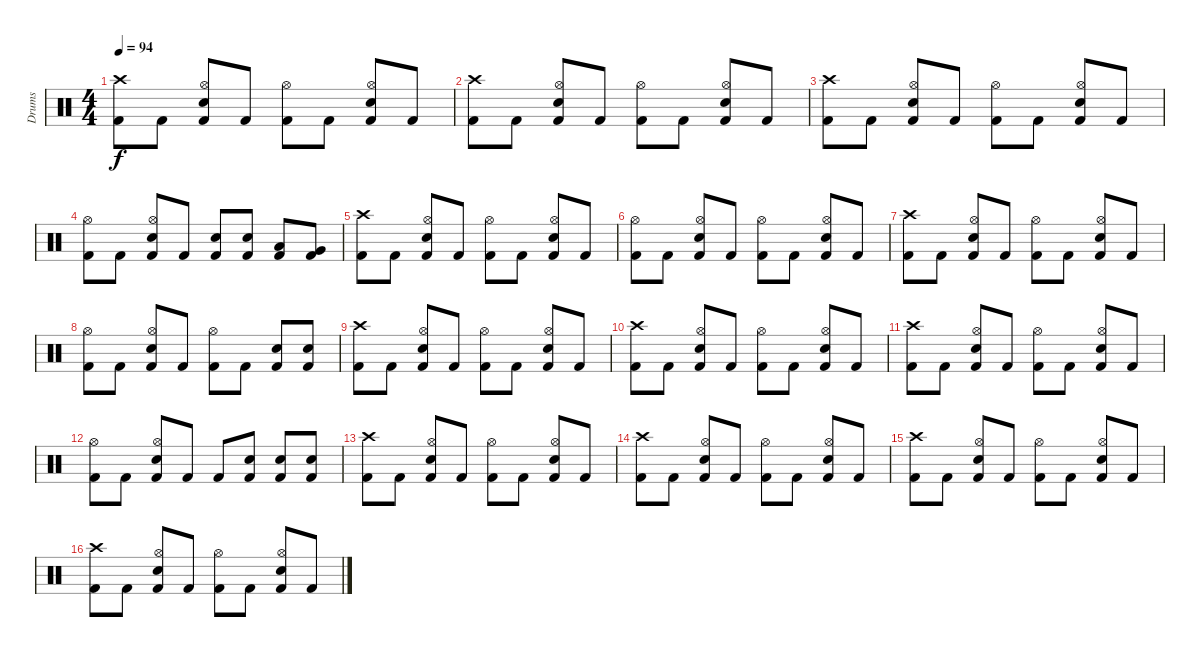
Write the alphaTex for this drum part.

\track ("Drums" "Drums") {instrument percussion}
\staff {score}
\articulation defaults
\ts (4 4)
\tempo 94
\clef neutral
\ks c
("Crash high (hit)" "Kick (hit) 2").8{dy f} "Kick (hit) 2".8 ("Hi-Hat (open)" "Snare (hit) 2" "Kick (hit) 2").8 "Kick (hit) 2".8 ("Hi-Hat (open)" "Kick (hit) 2").8 "Kick (hit) 2".8 ("Hi-Hat (open)" "Snare (hit) 2" "Kick (hit) 2").8 "Kick (hit) 2".8 |
("Crash high (hit)" "Kick (hit) 2").8 "Kick (hit) 2".8 ("Hi-Hat (open)" "Snare (hit) 2" "Kick (hit) 2").8 "Kick (hit) 2".8 ("Hi-Hat (open)" "Kick (hit) 2").8 "Kick (hit) 2".8 ("Hi-Hat (open)" "Snare (hit) 2" "Kick (hit) 2").8 "Kick (hit) 2".8 |
("Crash high (hit)" "Kick (hit) 2").8 "Kick (hit) 2".8 ("Hi-Hat (open)" "Snare (hit) 2" "Kick (hit) 2").8 "Kick (hit) 2".8 ("Hi-Hat (open)" "Kick (hit) 2").8 "Kick (hit) 2".8 ("Hi-Hat (open)" "Snare (hit) 2" "Kick (hit) 2").8 "Kick (hit) 2".8 |
("Hi-Hat (open)" "Kick (hit) 2").8 "Kick (hit) 2".8 ("Hi-Hat (open)" "Snare (hit) 2" "Kick (hit) 2").8 "Kick (hit) 2".8 ("Snare (hit) 2" "Kick (hit) 2").8 ("Snare (hit) 2" "Kick (hit) 2").8 ("Low Tom (hit)" "Kick (hit) 2").8 ("Very Low Tom (hit)" "Kick (hit) 2").8 |
("Crash high (hit)" "Kick (hit) 2").8 "Kick (hit) 2".8 ("Hi-Hat (open)" "Snare (hit) 2" "Kick (hit) 2").8 "Kick (hit) 2".8 ("Hi-Hat (open)" "Kick (hit) 2").8 "Kick (hit) 2".8 ("Hi-Hat (open)" "Snare (hit) 2" "Kick (hit) 2").8 "Kick (hit) 2".8 |
("Hi-Hat (open)" "Kick (hit) 2").8 "Kick (hit) 2".8 ("Hi-Hat (open)" "Snare (hit) 2" "Kick (hit) 2").8 "Kick (hit) 2".8 ("Hi-Hat (open)" "Kick (hit) 2").8 "Kick (hit) 2".8 ("Hi-Hat (open)" "Snare (hit) 2" "Kick (hit) 2").8 "Kick (hit) 2".8 |
("Crash high (hit)" "Kick (hit) 2").8 "Kick (hit) 2".8 ("Hi-Hat (open)" "Snare (hit) 2" "Kick (hit) 2").8 "Kick (hit) 2".8 ("Hi-Hat (open)" "Kick (hit) 2").8 "Kick (hit) 2".8 ("Hi-Hat (open)" "Snare (hit) 2" "Kick (hit) 2").8 "Kick (hit) 2".8 |
("Hi-Hat (open)" "Kick (hit) 2").8 "Kick (hit) 2".8 ("Hi-Hat (open)" "Snare (hit) 2" "Kick (hit) 2").8 "Kick (hit) 2".8 ("Hi-Hat (open)" "Kick (hit) 2").8 "Kick (hit) 2".8 ("Snare (hit) 2" "Kick (hit) 2").8 ("Snare (hit) 2" "Kick (hit) 2").8 |
("Crash high (hit)" "Kick (hit) 2").8 "Kick (hit) 2".8 ("Hi-Hat (open)" "Snare (hit) 2" "Kick (hit) 2").8 "Kick (hit) 2".8 ("Hi-Hat (open)" "Kick (hit) 2").8 "Kick (hit) 2".8 ("Hi-Hat (open)" "Snare (hit) 2" "Kick (hit) 2").8 "Kick (hit) 2".8 |
("Crash high (hit)" "Kick (hit) 2").8 "Kick (hit) 2".8 ("Hi-Hat (open)" "Snare (hit) 2" "Kick (hit) 2").8 "Kick (hit) 2".8 ("Hi-Hat (open)" "Kick (hit) 2").8 "Kick (hit) 2".8 ("Hi-Hat (open)" "Snare (hit) 2" "Kick (hit) 2").8 "Kick (hit) 2".8 |
("Crash high (hit)" "Kick (hit) 2").8 "Kick (hit) 2".8 ("Hi-Hat (open)" "Snare (hit) 2" "Kick (hit) 2").8 "Kick (hit) 2".8 ("Hi-Hat (open)" "Kick (hit) 2").8 "Kick (hit) 2".8 ("Hi-Hat (open)" "Snare (hit) 2" "Kick (hit) 2").8 "Kick (hit) 2".8 |
("Hi-Hat (open)" "Kick (hit) 2").8 "Kick (hit) 2".8 ("Hi-Hat (open)" "Snare (hit) 2" "Kick (hit) 2").8 "Kick (hit) 2".8 "Kick (hit) 2".8 ("Snare (hit) 2" "Kick (hit) 2").8 ("Snare (hit) 2" "Kick (hit) 2").8 ("Snare (hit) 2" "Kick (hit) 2").8 |
("Crash high (hit)" "Kick (hit) 2").8 "Kick (hit) 2".8 ("Hi-Hat (open)" "Snare (hit) 2" "Kick (hit) 2").8 "Kick (hit) 2".8 ("Hi-Hat (open)" "Kick (hit) 2").8 "Kick (hit) 2".8 ("Hi-Hat (open)" "Snare (hit) 2" "Kick (hit) 2").8 "Kick (hit) 2".8 |
("Crash high (hit)" "Kick (hit) 2").8 "Kick (hit) 2".8 ("Hi-Hat (open)" "Snare (hit) 2" "Kick (hit) 2").8 "Kick (hit) 2".8 ("Hi-Hat (open)" "Kick (hit) 2").8 "Kick (hit) 2".8 ("Hi-Hat (open)" "Snare (hit) 2" "Kick (hit) 2").8 "Kick (hit) 2".8 |
("Crash high (hit)" "Kick (hit) 2").8 "Kick (hit) 2".8 ("Hi-Hat (open)" "Snare (hit) 2" "Kick (hit) 2").8 "Kick (hit) 2".8 ("Hi-Hat (open)" "Kick (hit) 2").8 "Kick (hit) 2".8 ("Hi-Hat (open)" "Snare (hit) 2" "Kick (hit) 2").8 "Kick (hit) 2".8 |
("Crash high (hit)" "Kick (hit) 2").8 "Kick (hit) 2".8 ("Hi-Hat (open)" "Snare (hit) 2" "Kick (hit) 2").8 "Kick (hit) 2".8 ("Hi-Hat (open)" "Kick (hit) 2").8 "Kick (hit) 2".8 ("Hi-Hat (open)" "Snare (hit) 2" "Kick (hit) 2").8 "Kick (hit) 2".8
